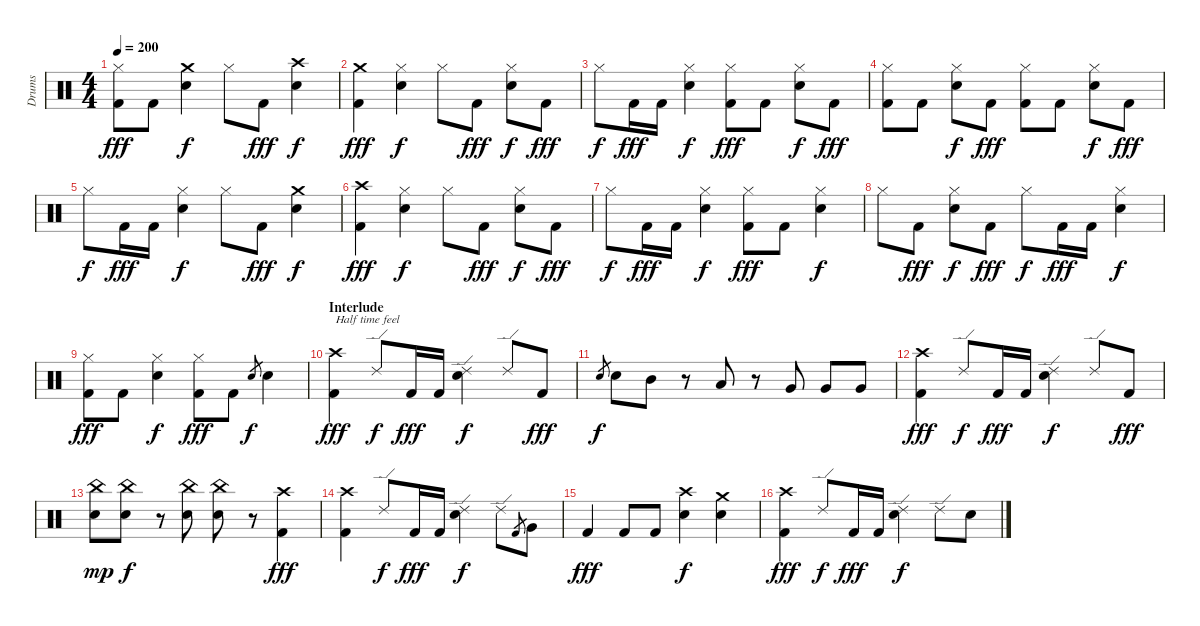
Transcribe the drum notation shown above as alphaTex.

\track ("Drums" "Drums") {instrument percussion}
\staff {score}
\articulation defaults
\ts (4 4)
\tempo 200
\clef neutral
\ks c
("Hi-Hat (closed)" "Kick (hit) 2").8{dy fff} "Kick (hit) 2".8 ("Crash medium (hit)" "Snare (hit) 2").4{dy f} "Hi-Hat (closed)".8 "Kick (hit) 2".8{dy fff} ("Crash high (hit)" "Snare (hit) 2").4{dy f} |
("Crash medium (hit)" "Kick (hit) 2").4{dy fff} ("Hi-Hat (closed)" "Snare (hit) 2").4{dy f} "Hi-Hat (closed)".8 "Kick (hit) 2".8{dy fff} ("Hi-Hat (closed)" "Snare (hit) 2").8{dy f} "Kick (hit) 2".8{dy fff} |
"Hi-Hat (closed)".8{dy f} "Kick (hit) 2".16{dy fff} "Kick (hit) 2".16 ("Hi-Hat (closed)" "Snare (hit) 2").4{dy f} ("Hi-Hat (closed)" "Kick (hit) 2").8{dy fff} "Kick (hit) 2".8 ("Hi-Hat (closed)" "Snare (hit) 2").8{dy f} "Kick (hit) 2".8{dy fff} |
("Hi-Hat (closed)" "Kick (hit) 2").8 "Kick (hit) 2".8 ("Hi-Hat (closed)" "Snare (hit) 2").8{dy f} "Kick (hit) 2".8{dy fff} ("Hi-Hat (closed)" "Kick (hit) 2").8 "Kick (hit) 2".8 ("Hi-Hat (closed)" "Snare (hit) 2").8{dy f} "Kick (hit) 2".8{dy fff} |
"Hi-Hat (closed)".8{dy f} "Kick (hit) 2".16{dy fff} "Kick (hit) 2".16 ("Hi-Hat (closed)" "Snare (hit) 2").4{dy f} "Hi-Hat (closed)".8 "Kick (hit) 2".8{dy fff} ("Crash medium (hit)" "Snare (hit) 2").4{dy f} |
("Crash high (hit)" "Kick (hit) 2").4{dy fff} ("Hi-Hat (closed)" "Snare (hit) 2").4{dy f} "Hi-Hat (closed)".8 "Kick (hit) 2".8{dy fff} ("Hi-Hat (closed)" "Snare (hit) 2").8{dy f} "Kick (hit) 2".8{dy fff} |
"Hi-Hat (closed)".8{dy f} "Kick (hit) 2".16{dy fff} "Kick (hit) 2".16 ("Hi-Hat (closed)" "Snare (hit) 2").4{dy f} ("Hi-Hat (closed)" "Kick (hit) 2").8{dy fff} "Kick (hit) 2".8 ("Hi-Hat (closed)" "Snare (hit) 2").4{dy f} |
"Hi-Hat (closed)".8 "Kick (hit) 2".8{dy fff} ("Hi-Hat (closed)" "Snare (hit) 2").8{dy f} "Kick (hit) 2".8{dy fff} "Hi-Hat (closed)".8{dy f} "Kick (hit) 2".16{dy fff} "Kick (hit) 2".16 ("Hi-Hat (closed)" "Snare (hit) 2").4{dy f} |
("Hi-Hat (closed)" "Kick (hit) 2").8{dy fff} "Kick (hit) 2".8 ("Hi-Hat (closed)" "Snare (hit) 2").4{dy f} ("Hi-Hat (closed)" "Kick (hit) 2").8{dy fff} "Kick (hit) 2".8 "Snare (hit) 2".8{gr dy f} "Snare (hit) 2".4 |
\section ("" "Interlude")
("Crash high (hit)" "Kick (hit) 2").4{txt "Half time feel" dy fff} "Ride (edge) 2".8{dy f} "Kick (hit) 2".16{dy fff} "Kick (hit) 2".16 ("Ride (edge) 2" "Snare (hit) 2").4{dy f} "Ride (edge) 2".8 "Kick (hit) 2".8{dy fff} |
"Snare (hit) 2".8{gr dy f} "Snare (hit) 2".8 "Mid Tom (hit)".8 r.8 "Low Tom (hit)".8 r.8 "Very Low Tom (hit)".8 "Very Low Tom (hit)".8 "Very Low Tom (hit)".8 |
("Crash high (hit)" "Kick (hit) 2").4{dy fff} "Ride (edge) 2".8{dy f} "Kick (hit) 2".16{dy fff} "Kick (hit) 2".16 ("Ride (edge) 2" "Snare (hit) 2").4{dy f} "Ride (edge) 2".8 "Kick (hit) 2".8{dy fff} |
("China (hit)" "Snare (hit) 2").8{dy mp} ("China (hit)" "Snare (hit) 2").8{dy f} r.8 ("China (hit)" "Snare (hit) 2").8 ("China (hit)" "Snare (hit) 2").8 r.8 ("Crash high (hit)" "Kick (hit) 2").4{dy fff} |
("Crash high (hit)" "Kick (hit) 2").4 "Ride (edge) 2".8{dy f} "Kick (hit) 2".16{dy fff} "Kick (hit) 2".16 ("Ride (edge) 2" "Snare (hit) 2").4{dy f} "Ride (edge) 2".8 "Kick (hit) 2".8{gr} "Very Low Tom (hit)".8 |
"Kick (hit) 2".4{dy fff} "Kick (hit) 2".8 "Kick (hit) 2".8 ("Crash high (hit)" "Snare (hit) 2").4{dy f} ("Crash medium (hit)" "Snare (hit) 2").4 |
("Crash high (hit)" "Kick (hit) 2").4{dy fff} "Ride (edge) 2".8{dy f} "Kick (hit) 2".16{dy fff} "Kick (hit) 2".16 ("Ride (edge) 2" "Snare (hit) 2").4{dy f} "Ride (edge) 2".8 "Snare (hit) 2".8
